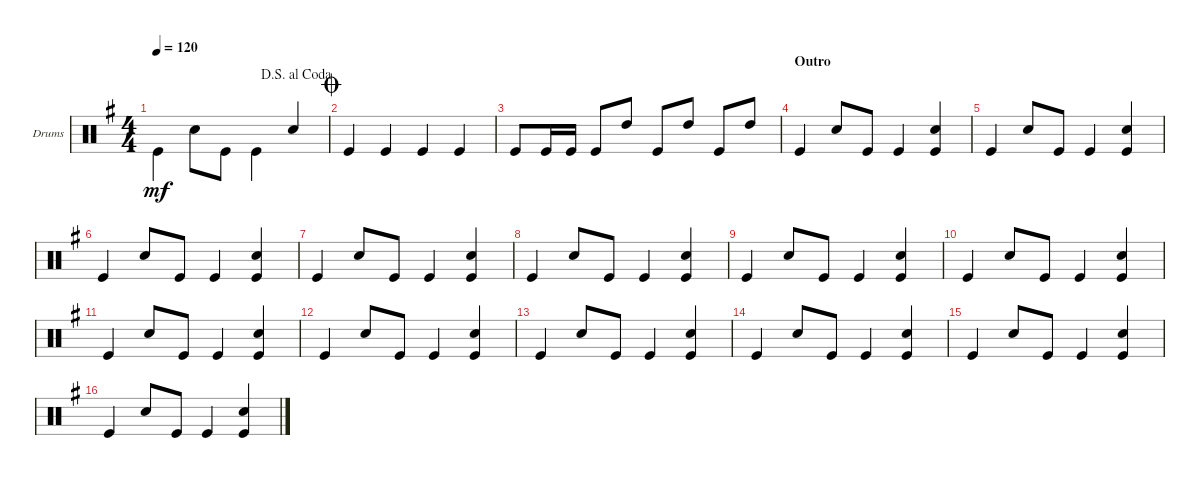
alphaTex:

\defaultSystemsLayout 4
\bracketExtendMode groupsimilarinstruments
\useSystemSignSeparator
\multiTrackTrackNamePolicy allsystems
\firstSystemTrackNameOrientation horizontal
\otherSystemsTrackNameOrientation horizontal
\track ("Drumkit" "Drums") {multiBarRest instrument percussion}
\staff {score}
\articulation defaults
\ts (4 4)
\jump dalsegnoalcoda
\tempo 120
\clef neutral
\ks g "Kick (hit)".4{dy mf beam invert} "Snare (hit) 2".8{beam invert} "Kick (hit)".8 "Kick (hit)".4{beam invert} "Snare (hit) 2".4{beam invert}
|
\jump coda "Kick (hit)".4 "Kick (hit)".4 "Kick (hit)".4 "Kick (hit)".4
|
"Kick (hit)".8 "Kick (hit)".16 "Kick (hit)".16 "Kick (hit)".8 "High Tom (hit)".8 "Kick (hit)".8 "High Tom (hit)".8 "Kick (hit)".8 "High Tom (hit)".8 |
\section ("" "Outro")
"Kick (hit)".4 "Snare (hit) 2".8 "Kick (hit)".8 "Kick (hit)".4 ("Kick (hit)" "Snare (hit) 2").4 |
"Kick (hit)".4 "Snare (hit) 2".8 "Kick (hit)".8 "Kick (hit)".4 ("Kick (hit)" "Snare (hit) 2").4 |
"Kick (hit)".4 "Snare (hit) 2".8 "Kick (hit)".8 "Kick (hit)".4 ("Kick (hit)" "Snare (hit) 2").4 |
"Kick (hit)".4 "Snare (hit) 2".8 "Kick (hit)".8 "Kick (hit)".4 ("Kick (hit)" "Snare (hit) 2").4 |
"Kick (hit)".4 "Snare (hit) 2".8 "Kick (hit)".8 "Kick (hit)".4 ("Kick (hit)" "Snare (hit) 2").4 |
"Kick (hit)".4 "Snare (hit) 2".8 "Kick (hit)".8 "Kick (hit)".4 ("Kick (hit)" "Snare (hit) 2").4 |
"Kick (hit)".4 "Snare (hit) 2".8 "Kick (hit)".8 "Kick (hit)".4 ("Kick (hit)" "Snare (hit) 2").4 |
"Kick (hit)".4 "Snare (hit) 2".8 "Kick (hit)".8 "Kick (hit)".4 ("Kick (hit)" "Snare (hit) 2").4 |
"Kick (hit)".4 "Snare (hit) 2".8 "Kick (hit)".8 "Kick (hit)".4 ("Kick (hit)" "Snare (hit) 2").4 |
"Kick (hit)".4 "Snare (hit) 2".8 "Kick (hit)".8 "Kick (hit)".4 ("Kick (hit)" "Snare (hit) 2").4 |
"Kick (hit)".4 "Snare (hit) 2".8 "Kick (hit)".8 "Kick (hit)".4 ("Kick (hit)" "Snare (hit) 2").4 |
"Kick (hit)".4 "Snare (hit) 2".8 "Kick (hit)".8 "Kick (hit)".4 ("Kick (hit)" "Snare (hit) 2").4 |
"Kick (hit)".4 "Snare (hit) 2".8 "Kick (hit)".8 "Kick (hit)".4 ("Kick (hit)" "Snare (hit) 2").4
